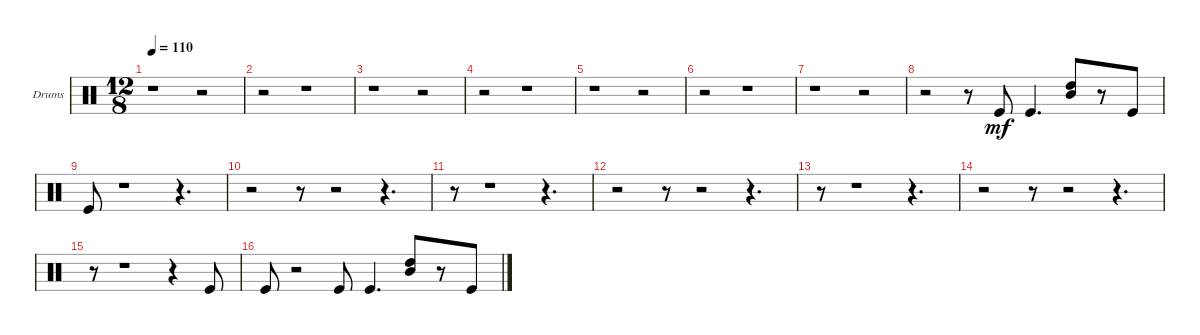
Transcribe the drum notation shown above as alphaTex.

\bracketExtendMode groupsimilarinstruments
\firstSystemTrackNameOrientation horizontal
\otherSystemsTrackNameOrientation horizontal
\track ("Drum Set" "Drums") {instrument percussion}
\staff {score}
\articulation defaults
\ts (12 8)
\tempo 110
\clef neutral
\ks c
r.1{dy mf} r.2 |
r.2 r.1 |
r.1 r.2 |
r.2 r.1 |
r.1 r.2 |
r.2 r.1 |
r.1 r.2 |
r.2 r.8 "Kick (hit)".8 "Kick (hit)".4{d} ("Mid Tom (hit)" "High Tom (hit)").8 r.8 "Kick (hit)".8 |
"Kick (hit)".8 r.1 r.4{d} |
r.2 r.8 r.2 r.4{d} |
r.8 r.1 r.4{d} |
r.2 r.8 r.2 r.4{d} |
r.8 r.1 r.4{d} |
r.2 r.8 r.2 r.4{d} |
r.8 r.1 r.4 "Kick (hit)".8 |
"Kick (hit)".8 r.2 "Kick (hit)".8 "Kick (hit)".4{d} ("Mid Tom (hit)" "High Tom (hit)").8 r.8 "Kick (hit)".8
